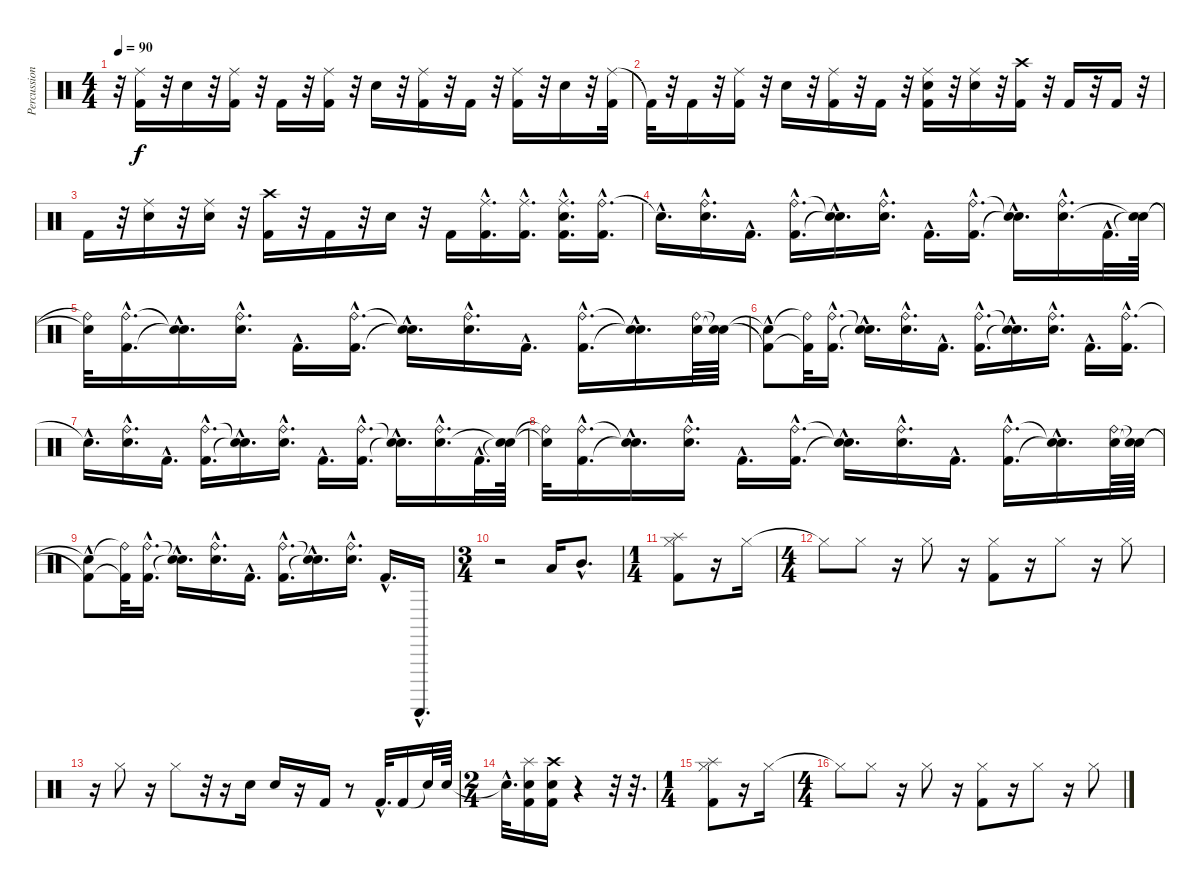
\track ("Percussioni" "Percussion") {instrument percussion}
\staff {score}
\articulation defaults
\ts (4 4)
\tempo 90
\clef neutral
\ks c
r.32{dy f} ("Ride (middle)" "Kick (hit) 2").16 r.32 "Electric Snare (hit)".16 r.32 ("Ride (middle)" "Kick (hit) 2").16 r.32 "Kick (hit) 2".16 r.32 ("Ride (middle)" "Kick (hit) 2").16 r.32 "Electric Snare (hit)".16 r.32 ("Ride (middle)" "Kick (hit) 2").16 r.32 "Kick (hit) 2".16 r.32 ("Ride (middle)" "Kick (hit) 2").16 r.32 "Electric Snare (hit)".16 r.32 ("Ride (middle)" "Kick (hit) 2").32 |
"Kick (hit) 2"{t}.32 r.32 "Kick (hit) 2".16 r.32 ("Ride (middle)" "Kick (hit) 2").16 r.32 "Electric Snare (hit)".16 r.32 ("Ride (middle)" "Kick (hit) 2").16 r.32 "Kick (hit) 2".16 r.32 ("Ride (middle)" "Kick (hit) 2" "Electric Snare (hit)").16 r.32 ("Ride (middle)" "Electric Snare (hit)").16 r.32 ("Crash high (hit)" "Kick (hit) 2").16 r.32 "Kick (hit) 2".16 r.32 "Kick (hit) 2".16 r.32 |
"Kick (hit) 2".16 r.32 ("Ride (middle)" "Electric Snare (hit)").16 r.32 ("Ride (middle)" "Electric Snare (hit)").16 r.32 ("Crash high (hit)" "Kick (hit) 2").16 r.32 "Kick (hit) 2".16 r.32 "Electric Snare (hit)".16 r.32 "Kick (hit) 2".16 ("Ride (middle)"{hac} "Kick (hit) 2"{hac}).16{d} ("Ride (middle)"{hac} "Kick (hit) 2"{hac}).16{d} ("Ride (middle)"{hac} "Kick (hit) 2"{hac} "Electric Snare (hit)"{hac}).16{d} ("Ride (bell)"{hac} "Kick (hit) 2"{hac}).16{d} |
"Electric Snare (hit)"{hac t}.16{d} ("Ride (bell)"{hac} "Electric Snare (hit)"{hac}).16{d} "Kick (hit) 2"{hac}.16{d} ("Ride (bell)"{hac} "Kick (hit) 2"{hac}).16{d} ("Snare (hit)"{hac t} "Electric Snare (hit)"{hac t}).16{d} ("Ride (bell)"{hac} "Electric Snare (hit)"{hac}).16{d} "Kick (hit) 2"{hac}.16{d} ("Ride (bell)"{hac} "Kick (hit) 2"{hac}).16{d} ("Snare (hit)"{hac t} "Snare (hit)"{hac t}).16{d} ("Ride (bell)"{hac} "Electric Snare (hit)"{hac}).16{d} "Kick (hit) 2"{hac}.32{d} ("Snare (hit)"{t} "Snare (hit)"{t}).64 |
("Ride (bell)"{t} "Snare (hit)"{t}).32 ("Ride (bell)"{hac} "Kick (hit) 2"{hac}).16{d} ("Snare (hit)"{hac t} "Snare (hit)"{hac t}).16{d} ("Ride (bell)"{hac} "Electric Snare (hit)"{hac}).16{d} "Kick (hit) 2"{hac}.16{d} ("Ride (bell)"{hac} "Kick (hit) 2"{hac}).16{d} ("Snare (hit)"{hac t} "Snare (hit)"{hac t}).16{d} ("Ride (bell)"{hac} "Electric Snare (hit)"{hac}).16{d} "Kick (hit) 2"{hac}.16{d} ("Ride (bell)"{hac} "Kick (hit) 2"{hac}).16{d} ("Snare (hit)"{hac t} "Snare (hit)"{hac t}).16{d} ("Ride (bell)" "Electric Snare (hit)").64 ("Snare (hit)"{t} "Snare (hit)"{t}).64 |
("Snare (hit)"{hac t} "Kick (hit) 2"{t}).8 ("Ride (bell)"{t} "Kick (hit) 2"{t}).32 ("Ride (bell)"{hac} "Kick (hit) 2"{hac}).16{d} ("Snare (hit)"{hac t} "Electric Snare (hit)"{hac t}).16{d} ("Ride (bell)"{hac} "Electric Snare (hit)"{hac}).16{d} "Kick (hit) 2"{hac}.16{d} ("Ride (bell)"{hac} "Kick (hit) 2"{hac}).16{d} ("Snare (hit)"{hac t} "Snare (hit)"{hac t}).16{d} ("Ride (bell)"{hac} "Electric Snare (hit)"{hac}).16{d} "Kick (hit) 2"{hac}.16{d} ("Ride (bell)"{hac} "Kick (hit) 2"{hac}).16{d} |
"Electric Snare (hit)"{hac t}.16{d} ("Ride (bell)"{hac} "Electric Snare (hit)"{hac}).16{d} "Kick (hit) 2"{hac}.16{d} ("Ride (bell)"{hac} "Kick (hit) 2"{hac}).16{d} ("Snare (hit)"{hac t} "Electric Snare (hit)"{hac t}).16{d} ("Ride (bell)"{hac} "Electric Snare (hit)"{hac}).16{d} "Kick (hit) 2"{hac}.16{d} ("Ride (bell)"{hac} "Kick (hit) 2"{hac}).16{d} ("Snare (hit)"{hac t} "Snare (hit)"{hac t}).16{d} ("Ride (bell)"{hac} "Electric Snare (hit)"{hac}).16{d} "Kick (hit) 2"{hac}.32{d} ("Snare (hit)"{t} "Snare (hit)"{t}).64 |
("Ride (bell)"{t} "Snare (hit)"{t}).32 ("Ride (bell)"{hac} "Kick (hit) 2"{hac}).16{d} ("Snare (hit)"{hac t} "Snare (hit)"{hac t}).16{d} ("Ride (bell)"{hac} "Electric Snare (hit)"{hac}).16{d} "Kick (hit) 2"{hac}.16{d} ("Ride (bell)"{hac} "Kick (hit) 2"{hac}).16{d} ("Snare (hit)"{hac t} "Snare (hit)"{hac t}).16{d} ("Ride (bell)"{hac} "Electric Snare (hit)"{hac}).16{d} "Kick (hit) 2"{hac}.16{d} ("Ride (bell)"{hac} "Kick (hit) 2"{hac}).16{d} ("Snare (hit)"{hac t} "Snare (hit)"{hac t}).16{d} ("Ride (bell)" "Electric Snare (hit)").64 ("Snare (hit)"{t} "Snare (hit)"{t}).64 |
("Snare (hit)"{hac t} "Kick (hit) 2"{t}).8 ("Ride (bell)"{t} "Kick (hit) 2"{t}).32 ("Ride (bell)"{hac} "Kick (hit) 2"{hac}).16{d} ("Snare (hit)"{hac t} "Electric Snare (hit)"{hac t}).16{d} ("Ride (bell)"{hac} "Electric Snare (hit)"{hac}).16{d} "Kick (hit) 2"{hac}.16{d} ("Ride (bell)"{hac} "Kick (hit) 2"{hac}).16{d} ("Snare (hit)"{hac t} "Snare (hit)"{hac t}).16{d} ("Ride (bell)"{hac} "Electric Snare (hit)"{hac}).16{d} "Kick (hit) 2"{hac}.16{d} "Guiro (scrap-return)"{hac}.16{d} |
\ts (3 4)
r.2 "Low Tom (hit)".16 "Mid Tom (hit)"{hac}.8{d} |
\ts (1 4)
("Splash (hit)" "Hi-Hat (closed)" "Kick (hit) 2").8 r.16 "Hi-Hat (closed)".16 |
\ts (4 4)
"Hi-Hat (closed)"{t}.8 "Hi-Hat (closed)".8 r.16 "Hi-Hat (closed)".8 r.16 ("Hi-Hat (closed)" "Kick (hit) 2").8 r.16 "Hi-Hat (closed)".8 r.16 "Hi-Hat (closed)".8 |
r.16 "Hi-Hat (closed)".8 r.16 "Hi-Hat (closed)".8 r.32 r.16 "Snare (hit) 2".16 "Snare (hit) 2".16 r.16 "Kick (hit) 2".16 r.8 "Kick (hit) 2"{hac}.32{d} "Kick (hit) 2".16 "Snare (hit)"{t}.32 "Electric Snare (hit)".64 |
\ts (2 4)
"Snare (hit)"{hac t}.32{d} ("Splash (hit)" "Electric Snare (hit)" "Kick (hit) 2").16 ("Crash high (hit)" "Electric Snare (hit)" "Kick (hit) 2").16 r.4 r.32 r.32{d} |
\ts (1 4)
("Splash (hit)" "Hi-Hat (closed)" "Kick (hit) 2").8 r.16 "Hi-Hat (closed)".16 |
\ts (4 4)
"Hi-Hat (closed)"{t}.8 "Hi-Hat (closed)".8 r.16 "Hi-Hat (closed)".8 r.16 ("Hi-Hat (closed)" "Kick (hit) 2").8 r.16 "Hi-Hat (closed)".8 r.16 "Hi-Hat (closed)".8
